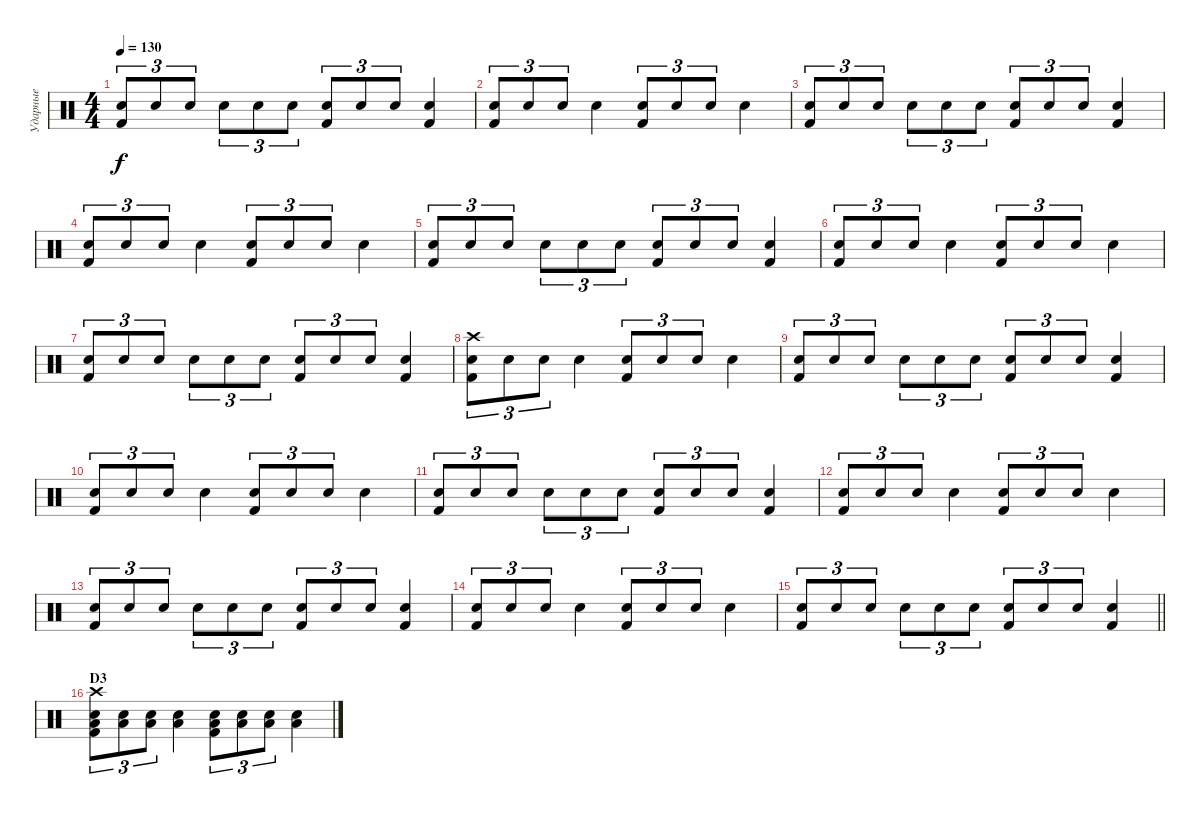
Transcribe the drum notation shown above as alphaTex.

\track ("Ударные" "Ударные") {instrument percussion}
\staff {score}
\articulation defaults
\ts (4 4)
\tempo 130
\clef neutral
\ks c
("Electric Snare (hit)" "Kick (hit) 2").8{tu (3 2) dy f} "Electric Snare (hit)".8{tu (3 2)} "Electric Snare (hit)".8{tu (3 2)} "Electric Snare (hit)".8{tu (3 2)} "Electric Snare (hit)".8{tu (3 2)} "Electric Snare (hit)".8{tu (3 2)} ("Electric Snare (hit)" "Kick (hit) 2").8{tu (3 2)} "Electric Snare (hit)".8{tu (3 2)} "Electric Snare (hit)".8{tu (3 2)} ("Electric Snare (hit)" "Kick (hit) 2").4 |
("Electric Snare (hit)" "Kick (hit) 2").8{tu (3 2)} "Electric Snare (hit)".8{tu (3 2)} "Electric Snare (hit)".8{tu (3 2)} "Electric Snare (hit)".4 ("Electric Snare (hit)" "Kick (hit) 2").8{tu (3 2)} "Electric Snare (hit)".8{tu (3 2)} "Electric Snare (hit)".8{tu (3 2)} "Electric Snare (hit)".4 |
("Electric Snare (hit)" "Kick (hit) 2").8{tu (3 2)} "Electric Snare (hit)".8{tu (3 2)} "Electric Snare (hit)".8{tu (3 2)} "Electric Snare (hit)".8{tu (3 2)} "Electric Snare (hit)".8{tu (3 2)} "Electric Snare (hit)".8{tu (3 2)} ("Electric Snare (hit)" "Kick (hit) 2").8{tu (3 2)} "Electric Snare (hit)".8{tu (3 2)} "Electric Snare (hit)".8{tu (3 2)} ("Electric Snare (hit)" "Kick (hit) 2").4 |
("Electric Snare (hit)" "Kick (hit) 2").8{tu (3 2)} "Electric Snare (hit)".8{tu (3 2)} "Electric Snare (hit)".8{tu (3 2)} "Electric Snare (hit)".4 ("Electric Snare (hit)" "Kick (hit) 2").8{tu (3 2)} "Electric Snare (hit)".8{tu (3 2)} "Electric Snare (hit)".8{tu (3 2)} "Electric Snare (hit)".4 |
("Electric Snare (hit)" "Kick (hit) 2").8{tu (3 2)} "Electric Snare (hit)".8{tu (3 2)} "Electric Snare (hit)".8{tu (3 2)} "Electric Snare (hit)".8{tu (3 2)} "Electric Snare (hit)".8{tu (3 2)} "Electric Snare (hit)".8{tu (3 2)} ("Electric Snare (hit)" "Kick (hit) 2").8{tu (3 2)} "Electric Snare (hit)".8{tu (3 2)} "Electric Snare (hit)".8{tu (3 2)} ("Electric Snare (hit)" "Kick (hit) 2").4 |
("Electric Snare (hit)" "Kick (hit) 2").8{tu (3 2)} "Electric Snare (hit)".8{tu (3 2)} "Electric Snare (hit)".8{tu (3 2)} "Electric Snare (hit)".4 ("Electric Snare (hit)" "Kick (hit) 2").8{tu (3 2)} "Electric Snare (hit)".8{tu (3 2)} "Electric Snare (hit)".8{tu (3 2)} "Electric Snare (hit)".4 |
("Electric Snare (hit)" "Kick (hit) 2").8{tu (3 2)} "Electric Snare (hit)".8{tu (3 2)} "Electric Snare (hit)".8{tu (3 2)} "Electric Snare (hit)".8{tu (3 2)} "Electric Snare (hit)".8{tu (3 2)} "Electric Snare (hit)".8{tu (3 2)} ("Electric Snare (hit)" "Kick (hit) 2").8{tu (3 2)} "Electric Snare (hit)".8{tu (3 2)} "Electric Snare (hit)".8{tu (3 2)} ("Electric Snare (hit)" "Kick (hit) 2").4 |
("Crash high (hit)" "Electric Snare (hit)" "Kick (hit) 2").8{tu (3 2)} "Electric Snare (hit)".8{tu (3 2)} "Electric Snare (hit)".8{tu (3 2)} "Electric Snare (hit)".4 ("Electric Snare (hit)" "Kick (hit) 2").8{tu (3 2)} "Electric Snare (hit)".8{tu (3 2)} "Electric Snare (hit)".8{tu (3 2)} "Electric Snare (hit)".4 |
("Electric Snare (hit)" "Kick (hit) 2").8{tu (3 2)} "Electric Snare (hit)".8{tu (3 2)} "Electric Snare (hit)".8{tu (3 2)} "Electric Snare (hit)".8{tu (3 2)} "Electric Snare (hit)".8{tu (3 2)} "Electric Snare (hit)".8{tu (3 2)} ("Electric Snare (hit)" "Kick (hit) 2").8{tu (3 2)} "Electric Snare (hit)".8{tu (3 2)} "Electric Snare (hit)".8{tu (3 2)} ("Electric Snare (hit)" "Kick (hit) 2").4 |
("Electric Snare (hit)" "Kick (hit) 2").8{tu (3 2)} "Electric Snare (hit)".8{tu (3 2)} "Electric Snare (hit)".8{tu (3 2)} "Electric Snare (hit)".4 ("Electric Snare (hit)" "Kick (hit) 2").8{tu (3 2)} "Electric Snare (hit)".8{tu (3 2)} "Electric Snare (hit)".8{tu (3 2)} "Electric Snare (hit)".4 |
("Electric Snare (hit)" "Kick (hit) 2").8{tu (3 2)} "Electric Snare (hit)".8{tu (3 2)} "Electric Snare (hit)".8{tu (3 2)} "Electric Snare (hit)".8{tu (3 2)} "Electric Snare (hit)".8{tu (3 2)} "Electric Snare (hit)".8{tu (3 2)} ("Electric Snare (hit)" "Kick (hit) 2").8{tu (3 2)} "Electric Snare (hit)".8{tu (3 2)} "Electric Snare (hit)".8{tu (3 2)} ("Electric Snare (hit)" "Kick (hit) 2").4 |
("Electric Snare (hit)" "Kick (hit) 2").8{tu (3 2)} "Electric Snare (hit)".8{tu (3 2)} "Electric Snare (hit)".8{tu (3 2)} "Electric Snare (hit)".4 ("Electric Snare (hit)" "Kick (hit) 2").8{tu (3 2)} "Electric Snare (hit)".8{tu (3 2)} "Electric Snare (hit)".8{tu (3 2)} "Electric Snare (hit)".4 |
("Electric Snare (hit)" "Kick (hit) 2").8{tu (3 2)} "Electric Snare (hit)".8{tu (3 2)} "Electric Snare (hit)".8{tu (3 2)} "Electric Snare (hit)".8{tu (3 2)} "Electric Snare (hit)".8{tu (3 2)} "Electric Snare (hit)".8{tu (3 2)} ("Electric Snare (hit)" "Kick (hit) 2").8{tu (3 2)} "Electric Snare (hit)".8{tu (3 2)} "Electric Snare (hit)".8{tu (3 2)} ("Electric Snare (hit)" "Kick (hit) 2").4 |
("Electric Snare (hit)" "Kick (hit) 2").8{tu (3 2)} "Electric Snare (hit)".8{tu (3 2)} "Electric Snare (hit)".8{tu (3 2)} "Electric Snare (hit)".4 ("Electric Snare (hit)" "Kick (hit) 2").8{tu (3 2)} "Electric Snare (hit)".8{tu (3 2)} "Electric Snare (hit)".8{tu (3 2)} "Electric Snare (hit)".4 |
\barLineRight lightlight
("Electric Snare (hit)" "Kick (hit) 2").8{tu (3 2)} "Electric Snare (hit)".8{tu (3 2)} "Electric Snare (hit)".8{tu (3 2)} "Electric Snare (hit)".8{tu (3 2)} "Electric Snare (hit)".8{tu (3 2)} "Electric Snare (hit)".8{tu (3 2)} ("Electric Snare (hit)" "Kick (hit) 2").8{tu (3 2)} "Electric Snare (hit)".8{tu (3 2)} "Electric Snare (hit)".8{tu (3 2)} ("Electric Snare (hit)" "Kick (hit) 2").4 |
\section ("" "D3")
("Crash high (hit)" "Low Floor Tom (hit)" "Electric Snare (hit)" "Kick (hit) 2").8{tu (3 2)} ("Low Floor Tom (hit)" "Electric Snare (hit)").8{tu (3 2)} ("Low Floor Tom (hit)" "Electric Snare (hit)").8{tu (3 2)} ("Low Floor Tom (hit)" "Electric Snare (hit)").4 ("Low Floor Tom (hit)" "Electric Snare (hit)" "Kick (hit) 2").8{tu (3 2)} ("Low Floor Tom (hit)" "Electric Snare (hit)").8{tu (3 2)} ("Low Floor Tom (hit)" "Electric Snare (hit)").8{tu (3 2)} ("Low Floor Tom (hit)" "Electric Snare (hit)").4
